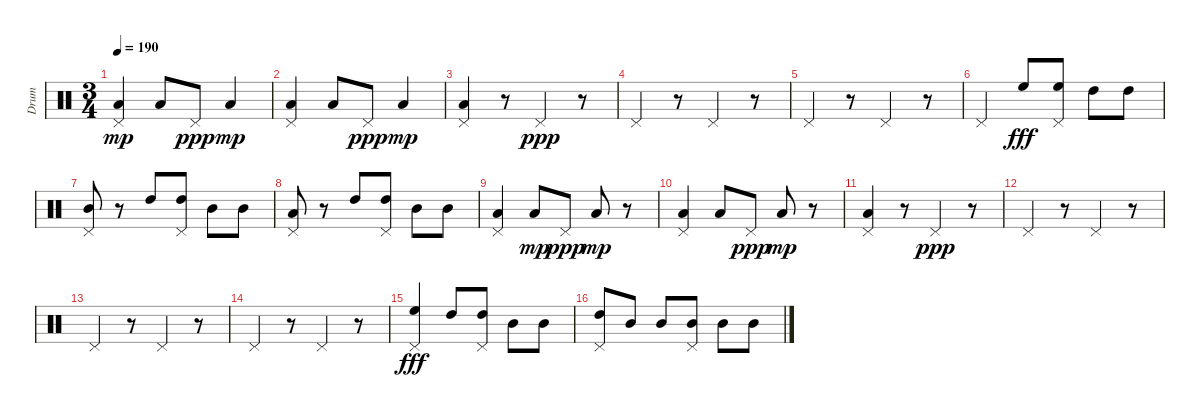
\track ("Drum" "Drum") {instrument percussion}
\staff {score}
\articulation defaults
\ts (3 4)
\tempo 190
\clef neutral
\ks c
("Pedal Hi-Hat (hit)" "Low Tom (hit)").4{dy mp} "Low Tom (hit)".8 "Pedal Hi-Hat (hit)".8{dy ppp} "Low Tom (hit)".4{dy mp} |
("Pedal Hi-Hat (hit)" "Low Tom (hit)").4 "Low Tom (hit)".8 "Pedal Hi-Hat (hit)".8{dy ppp} "Low Tom (hit)".4{dy mp} |
("Pedal Hi-Hat (hit)" "Low Tom (hit)").4 r.8 "Pedal Hi-Hat (hit)".4{dy ppp} r.8 |
"Pedal Hi-Hat (hit)".4 r.8 "Pedal Hi-Hat (hit)".4 r.8 |
"Pedal Hi-Hat (hit)".4 r.8 "Pedal Hi-Hat (hit)".4 r.8 |
"Pedal Hi-Hat (hit)".4 "High Floor Tom (hit)".8{dy fff} ("Pedal Hi-Hat (hit)" "High Floor Tom (hit)").8 "High Tom (hit)".8 "High Tom (hit)".8 |
("Pedal Hi-Hat (hit)" "Mid Tom (hit)").8 r.8 "High Tom (hit)".8 ("Pedal Hi-Hat (hit)" "High Tom (hit)").8 "Mid Tom (hit)".8 "Mid Tom (hit)".8 |
("Pedal Hi-Hat (hit)" "Low Tom (hit)").8 r.8 "High Tom (hit)".8 ("Pedal Hi-Hat (hit)" "High Tom (hit)").8 "Mid Tom (hit)".8 "Mid Tom (hit)".8 |
("Pedal Hi-Hat (hit)" "Low Tom (hit)").4 "Low Tom (hit)".8{dy mp} "Pedal Hi-Hat (hit)".8{dy ppp} "Low Tom (hit)".8{dy mp} r.8 |
("Pedal Hi-Hat (hit)" "Low Tom (hit)").4 "Low Tom (hit)".8 "Pedal Hi-Hat (hit)".8{dy ppp} "Low Tom (hit)".8{dy mp} r.8 |
("Pedal Hi-Hat (hit)" "Low Tom (hit)").4 r.8 "Pedal Hi-Hat (hit)".4{dy ppp} r.8 |
"Pedal Hi-Hat (hit)".4 r.8 "Pedal Hi-Hat (hit)".4 r.8 |
"Pedal Hi-Hat (hit)".4 r.8 "Pedal Hi-Hat (hit)".4 r.8 |
"Pedal Hi-Hat (hit)".4 r.8 "Pedal Hi-Hat (hit)".4 r.8 |
("Pedal Hi-Hat (hit)" "High Floor Tom (hit)").4{dy fff} "High Tom (hit)".8 ("Pedal Hi-Hat (hit)" "High Tom (hit)").8 "Mid Tom (hit)".8 "Mid Tom (hit)".8 |
("Pedal Hi-Hat (hit)" "High Tom (hit)").8 "Mid Tom (hit)".8 "Mid Tom (hit)".8 ("Pedal Hi-Hat (hit)" "Mid Tom (hit)").8 "Mid Tom (hit)".8 "Mid Tom (hit)".8
